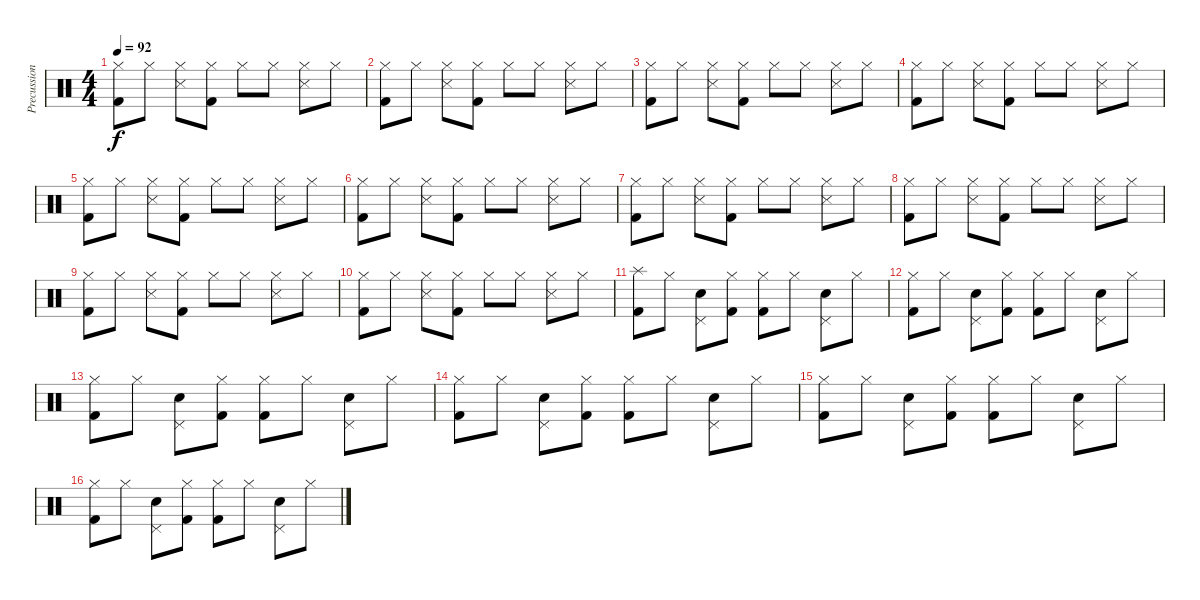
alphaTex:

\track ("Precussion" "Precussion") {instrument percussion}
\staff {score}
\articulation defaults
\ts (4 4)
\tempo 92
\clef neutral
\ks c
("Hi-Hat (closed)" "Kick (hit) 2").8{dy f} "Hi-Hat (closed)".8 ("Hi-Hat (closed)" "Snare (side stick) 3").8 ("Hi-Hat (closed)" "Kick (hit) 2").8 "Hi-Hat (closed)".8 "Hi-Hat (closed)".8 ("Hi-Hat (closed)" "Snare (side stick) 3").8 "Hi-Hat (closed)".8 |
("Hi-Hat (closed)" "Kick (hit) 2").8 "Hi-Hat (closed)".8 ("Hi-Hat (closed)" "Snare (side stick) 3").8 ("Hi-Hat (closed)" "Kick (hit) 2").8 "Hi-Hat (closed)".8 "Hi-Hat (closed)".8 ("Hi-Hat (closed)" "Snare (side stick) 3").8 "Hi-Hat (closed)".8 |
("Hi-Hat (closed)" "Kick (hit) 2").8 "Hi-Hat (closed)".8 ("Hi-Hat (closed)" "Snare (side stick) 3").8 ("Hi-Hat (closed)" "Kick (hit) 2").8 "Hi-Hat (closed)".8 "Hi-Hat (closed)".8 ("Hi-Hat (closed)" "Snare (side stick) 3").8 "Hi-Hat (closed)".8 |
("Hi-Hat (closed)" "Kick (hit) 2").8 "Hi-Hat (closed)".8 ("Hi-Hat (closed)" "Snare (side stick) 3").8 ("Hi-Hat (closed)" "Kick (hit) 2").8 "Hi-Hat (closed)".8 "Hi-Hat (closed)".8 ("Hi-Hat (closed)" "Snare (side stick) 3").8 "Hi-Hat (closed)".8 |
("Hi-Hat (closed)" "Kick (hit) 2").8 "Hi-Hat (closed)".8 ("Hi-Hat (closed)" "Snare (side stick) 3").8 ("Hi-Hat (closed)" "Kick (hit) 2").8 "Hi-Hat (closed)".8 "Hi-Hat (closed)".8 ("Hi-Hat (closed)" "Snare (side stick) 3").8 "Hi-Hat (closed)".8 |
("Hi-Hat (closed)" "Kick (hit) 2").8 "Hi-Hat (closed)".8 ("Hi-Hat (closed)" "Snare (side stick) 3").8 ("Hi-Hat (closed)" "Kick (hit) 2").8 "Hi-Hat (closed)".8 "Hi-Hat (closed)".8 ("Hi-Hat (closed)" "Snare (side stick) 3").8 "Hi-Hat (closed)".8 |
("Hi-Hat (closed)" "Kick (hit) 2").8 "Hi-Hat (closed)".8 ("Hi-Hat (closed)" "Snare (side stick) 3").8 ("Hi-Hat (closed)" "Kick (hit) 2").8 "Hi-Hat (closed)".8 "Hi-Hat (closed)".8 ("Hi-Hat (closed)" "Snare (side stick) 3").8 "Hi-Hat (closed)".8 |
("Hi-Hat (closed)" "Kick (hit) 2").8 "Hi-Hat (closed)".8 ("Hi-Hat (closed)" "Snare (side stick) 3").8 ("Hi-Hat (closed)" "Kick (hit) 2").8 "Hi-Hat (closed)".8 "Hi-Hat (closed)".8 ("Hi-Hat (closed)" "Snare (side stick) 3").8 "Hi-Hat (closed)".8 |
("Hi-Hat (closed)" "Kick (hit) 2").8 "Hi-Hat (closed)".8 ("Hi-Hat (closed)" "Snare (side stick) 3").8 ("Hi-Hat (closed)" "Kick (hit) 2").8 "Hi-Hat (closed)".8 "Hi-Hat (closed)".8 ("Hi-Hat (closed)" "Snare (side stick) 3").8 "Hi-Hat (closed)".8 |
("Hi-Hat (closed)" "Kick (hit) 2").8 "Hi-Hat (closed)".8 ("Hi-Hat (closed)" "Snare (side stick) 3").8 ("Hi-Hat (closed)" "Kick (hit) 2").8 "Hi-Hat (closed)".8 "Hi-Hat (closed)".8 ("Hi-Hat (closed)" "Snare (side stick) 3").8 "Hi-Hat (closed)".8 |
("Splash (hit)" "Kick (hit) 2").8 "Hi-Hat (closed)".8 ("Pedal Hi-Hat (hit)" "Snare (hit) 2").8 ("Hi-Hat (closed)" "Kick (hit) 2").8 ("Hi-Hat (closed)" "Kick (hit) 2").8 "Hi-Hat (closed)".8 ("Pedal Hi-Hat (hit)" "Snare (hit) 2").8 "Hi-Hat (closed)".8 |
("Hi-Hat (closed)" "Kick (hit) 2").8 "Hi-Hat (closed)".8 ("Pedal Hi-Hat (hit)" "Snare (hit) 2").8 ("Hi-Hat (closed)" "Kick (hit) 2").8 ("Hi-Hat (closed)" "Kick (hit) 2").8 "Hi-Hat (closed)".8 ("Pedal Hi-Hat (hit)" "Snare (hit) 2").8 "Hi-Hat (closed)".8 |
("Hi-Hat (closed)" "Kick (hit) 2").8 "Hi-Hat (closed)".8 ("Pedal Hi-Hat (hit)" "Snare (hit) 2").8 ("Hi-Hat (closed)" "Kick (hit) 2").8 ("Hi-Hat (closed)" "Kick (hit) 2").8 "Hi-Hat (closed)".8 ("Pedal Hi-Hat (hit)" "Snare (hit) 2").8 "Hi-Hat (closed)".8 |
("Hi-Hat (closed)" "Kick (hit) 2").8 "Hi-Hat (closed)".8 ("Pedal Hi-Hat (hit)" "Snare (hit) 2").8 ("Hi-Hat (closed)" "Kick (hit) 2").8 ("Hi-Hat (closed)" "Kick (hit) 2").8 "Hi-Hat (closed)".8 ("Pedal Hi-Hat (hit)" "Snare (hit) 2").8 "Hi-Hat (closed)".8 |
("Hi-Hat (closed)" "Kick (hit) 2").8 "Hi-Hat (closed)".8 ("Pedal Hi-Hat (hit)" "Snare (hit) 2").8 ("Hi-Hat (closed)" "Kick (hit) 2").8 ("Hi-Hat (closed)" "Kick (hit) 2").8 "Hi-Hat (closed)".8 ("Pedal Hi-Hat (hit)" "Snare (hit) 2").8 "Hi-Hat (closed)".8 |
("Hi-Hat (closed)" "Kick (hit) 2").8 "Hi-Hat (closed)".8 ("Pedal Hi-Hat (hit)" "Snare (hit) 2").8 ("Hi-Hat (closed)" "Kick (hit) 2").8 ("Hi-Hat (closed)" "Kick (hit) 2").8 "Hi-Hat (closed)".8 ("Pedal Hi-Hat (hit)" "Snare (hit) 2").8 "Hi-Hat (closed)".8
